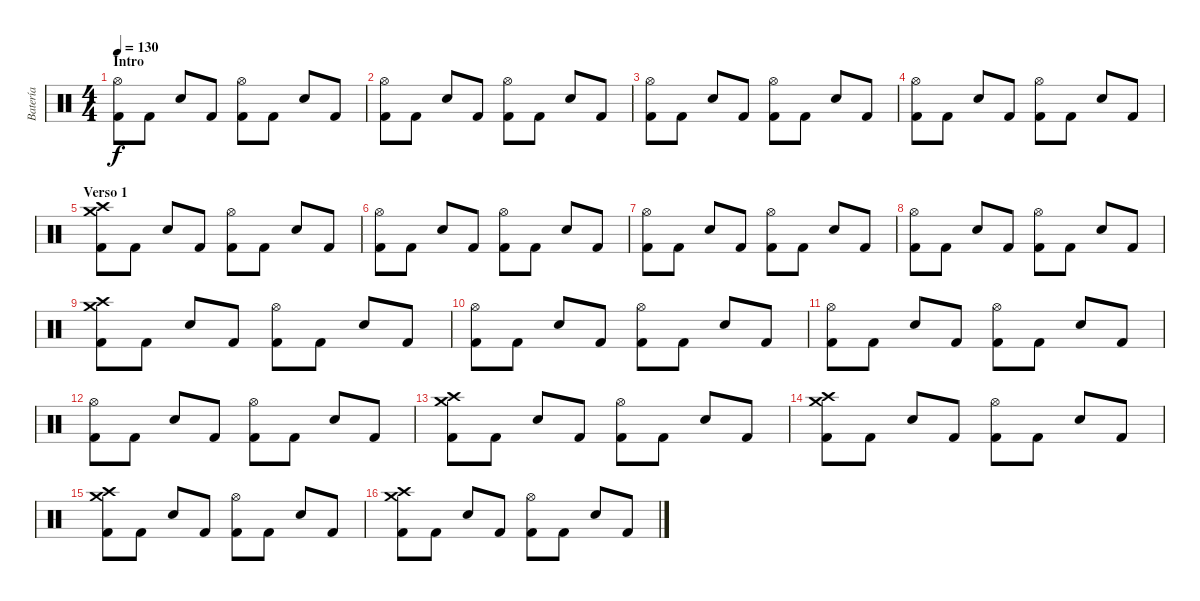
\track ("Batería" "Batería") {instrument percussion}
\staff {score}
\articulation defaults
\ts (4 4)
\section ("" "Intro")
\tempo 130
\clef neutral
\ks c
("Hi-Hat (open)" "Kick (hit) 2").8{dy f} "Kick (hit) 2".8 "Snare (hit) 2".8 "Kick (hit) 2".8 ("Hi-Hat (open)" "Kick (hit) 2").8 "Kick (hit) 2".8 "Snare (hit) 2".8 "Kick (hit) 2".8 |
("Hi-Hat (open)" "Kick (hit) 2").8 "Kick (hit) 2".8 "Snare (hit) 2".8 "Kick (hit) 2".8 ("Hi-Hat (open)" "Kick (hit) 2").8 "Kick (hit) 2".8 "Snare (hit) 2".8 "Kick (hit) 2".8 |
("Hi-Hat (open)" "Kick (hit) 2").8 "Kick (hit) 2".8 "Snare (hit) 2".8 "Kick (hit) 2".8 ("Hi-Hat (open)" "Kick (hit) 2").8 "Kick (hit) 2".8 "Snare (hit) 2".8 "Kick (hit) 2".8 |
("Hi-Hat (open)" "Kick (hit) 2").8 "Kick (hit) 2".8 "Snare (hit) 2".8 "Kick (hit) 2".8 ("Hi-Hat (open)" "Kick (hit) 2").8 "Kick (hit) 2".8 "Snare (hit) 2".8 "Kick (hit) 2".8 |
\section ("" "Verso 1")
("Crash medium (hit)" "Crash high (hit)" "Kick (hit) 2").8 "Kick (hit) 2".8 "Snare (hit) 2".8 "Kick (hit) 2".8 ("Hi-Hat (open)" "Kick (hit) 2").8 "Kick (hit) 2".8 "Snare (hit) 2".8 "Kick (hit) 2".8 |
("Hi-Hat (open)" "Kick (hit) 2").8 "Kick (hit) 2".8 "Snare (hit) 2".8 "Kick (hit) 2".8 ("Hi-Hat (open)" "Kick (hit) 2").8 "Kick (hit) 2".8 "Snare (hit) 2".8 "Kick (hit) 2".8 |
("Hi-Hat (open)" "Kick (hit) 2").8 "Kick (hit) 2".8 "Snare (hit) 2".8 "Kick (hit) 2".8 ("Hi-Hat (open)" "Kick (hit) 2").8 "Kick (hit) 2".8 "Snare (hit) 2".8 "Kick (hit) 2".8 |
("Hi-Hat (open)" "Kick (hit) 2").8 "Kick (hit) 2".8 "Snare (hit) 2".8 "Kick (hit) 2".8 ("Hi-Hat (open)" "Kick (hit) 2").8 "Kick (hit) 2".8 "Snare (hit) 2".8 "Kick (hit) 2".8 |
("Crash medium (hit)" "Crash high (hit)" "Kick (hit) 2").8 "Kick (hit) 2".8 "Snare (hit) 2".8 "Kick (hit) 2".8 ("Hi-Hat (open)" "Kick (hit) 2").8 "Kick (hit) 2".8 "Snare (hit) 2".8 "Kick (hit) 2".8 |
("Hi-Hat (open)" "Kick (hit) 2").8 "Kick (hit) 2".8 "Snare (hit) 2".8 "Kick (hit) 2".8 ("Hi-Hat (open)" "Kick (hit) 2").8 "Kick (hit) 2".8 "Snare (hit) 2".8 "Kick (hit) 2".8 |
("Hi-Hat (open)" "Kick (hit) 2").8 "Kick (hit) 2".8 "Snare (hit) 2".8 "Kick (hit) 2".8 ("Hi-Hat (open)" "Kick (hit) 2").8 "Kick (hit) 2".8 "Snare (hit) 2".8 "Kick (hit) 2".8 |
("Hi-Hat (open)" "Kick (hit) 2").8 "Kick (hit) 2".8 "Snare (hit) 2".8 "Kick (hit) 2".8 ("Hi-Hat (open)" "Kick (hit) 2").8 "Kick (hit) 2".8 "Snare (hit) 2".8 "Kick (hit) 2".8 |
("Crash medium (hit)" "Crash high (hit)" "Kick (hit) 2").8 "Kick (hit) 2".8 "Snare (hit) 2".8 "Kick (hit) 2".8 ("Hi-Hat (open)" "Kick (hit) 2").8 "Kick (hit) 2".8 "Snare (hit) 2".8 "Kick (hit) 2".8 |
("Crash medium (hit)" "Crash high (hit)" "Kick (hit) 2").8 "Kick (hit) 2".8 "Snare (hit) 2".8 "Kick (hit) 2".8 ("Hi-Hat (open)" "Kick (hit) 2").8 "Kick (hit) 2".8 "Snare (hit) 2".8 "Kick (hit) 2".8 |
("Crash medium (hit)" "Crash high (hit)" "Kick (hit) 2").8 "Kick (hit) 2".8 "Snare (hit) 2".8 "Kick (hit) 2".8 ("Hi-Hat (open)" "Kick (hit) 2").8 "Kick (hit) 2".8 "Snare (hit) 2".8 "Kick (hit) 2".8 |
("Crash medium (hit)" "Crash high (hit)" "Kick (hit) 2").8 "Kick (hit) 2".8 "Snare (hit) 2".8 "Kick (hit) 2".8 ("Hi-Hat (open)" "Kick (hit) 2").8 "Kick (hit) 2".8 "Snare (hit) 2".8 "Kick (hit) 2".8
